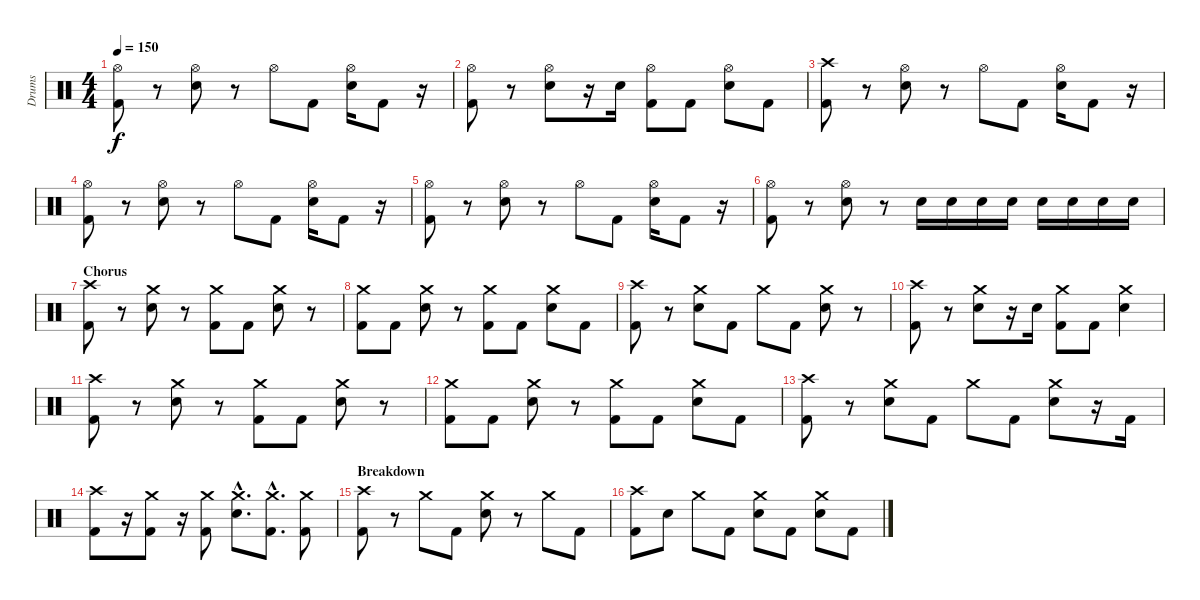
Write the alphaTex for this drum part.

\track ("Drums" "Drums") {instrument percussion}
\staff {score}
\articulation defaults
\ts (4 4)
\tempo 150
\clef neutral
\ks c
("Hi-Hat (open)" "Kick (hit) 2").8{dy f} r.8 ("Hi-Hat (open)" "Electric Snare (hit)").8 r.8 "Hi-Hat (open)".8 "Kick (hit) 2".8 ("Hi-Hat (open)" "Electric Snare (hit)").16 "Kick (hit) 2".8 r.16 |
("Hi-Hat (open)" "Kick (hit) 2").8 r.8 ("Hi-Hat (open)" "Electric Snare (hit)").8 r.16 "Electric Snare (hit)".16 ("Hi-Hat (open)" "Kick (hit) 2").8 "Kick (hit) 2".8 ("Hi-Hat (open)" "Electric Snare (hit)").8 "Kick (hit) 2".8 |
("Crash high (hit)" "Kick (hit) 2").8 r.8 ("Hi-Hat (open)" "Electric Snare (hit)").8 r.8 "Hi-Hat (open)".8 "Kick (hit) 2".8 ("Hi-Hat (open)" "Electric Snare (hit)").16 "Kick (hit) 2".8 r.16 |
("Hi-Hat (open)" "Kick (hit) 2").8 r.8 ("Hi-Hat (open)" "Electric Snare (hit)").8 r.8 "Hi-Hat (open)".8 "Kick (hit) 2".8 ("Hi-Hat (open)" "Electric Snare (hit)").16 "Kick (hit) 2".8 r.16 |
("Hi-Hat (open)" "Kick (hit) 2").8 r.8 ("Hi-Hat (open)" "Electric Snare (hit)").8 r.8 "Hi-Hat (open)".8 "Kick (hit) 2".8 ("Hi-Hat (open)" "Electric Snare (hit)").16 "Kick (hit) 2".8 r.16 |
("Hi-Hat (open)" "Kick (hit) 2").8 r.8 ("Hi-Hat (open)" "Electric Snare (hit)").8 r.8 "Electric Snare (hit)".16 "Electric Snare (hit)".16 "Electric Snare (hit)".16 "Electric Snare (hit)".16 "Electric Snare (hit)".16 "Electric Snare (hit)".16 "Electric Snare (hit)".16 "Electric Snare (hit)".16 |
\section ("" "Chorus")
("Crash high (hit)" "Kick (hit) 2").8 r.8 ("Crash medium (hit)" "Electric Snare (hit)").8 r.8 ("Crash medium (hit)" "Kick (hit) 2").8 "Kick (hit) 2".8 ("Crash medium (hit)" "Electric Snare (hit)").8 r.8 |
("Crash medium (hit)" "Kick (hit) 2").8 "Kick (hit) 2".8 ("Crash medium (hit)" "Electric Snare (hit)").8 r.8 ("Crash medium (hit)" "Kick (hit) 2").8 "Kick (hit) 2".8 ("Crash medium (hit)" "Electric Snare (hit)").8 "Kick (hit) 2".8 |
("Crash high (hit)" "Kick (hit) 2").8 r.8 ("Crash medium (hit)" "Electric Snare (hit)").8 "Kick (hit) 2".8 "Crash medium (hit)".8 "Kick (hit) 2".8 ("Crash medium (hit)" "Electric Snare (hit)").8 r.8 |
("Crash high (hit)" "Kick (hit) 2").8 r.8 ("Crash medium (hit)" "Electric Snare (hit)").8 r.16 "Electric Snare (hit)".16 ("Crash medium (hit)" "Kick (hit) 2").8 "Kick (hit) 2".8 ("Crash medium (hit)" "Electric Snare (hit)").4 |
("Crash high (hit)" "Kick (hit) 2").8 r.8 ("Crash medium (hit)" "Electric Snare (hit)").8 r.8 ("Crash medium (hit)" "Kick (hit) 2").8 "Kick (hit) 2".8 ("Crash medium (hit)" "Electric Snare (hit)").8 r.8 |
("Crash medium (hit)" "Kick (hit) 2").8 "Kick (hit) 2".8 ("Crash medium (hit)" "Electric Snare (hit)").8 r.8 ("Crash medium (hit)" "Kick (hit) 2").8 "Kick (hit) 2".8 ("Crash medium (hit)" "Electric Snare (hit)").8 "Kick (hit) 2".8 |
("Crash high (hit)" "Kick (hit) 2").8 r.8 ("Crash medium (hit)" "Electric Snare (hit)").8 "Kick (hit) 2".8 "Crash medium (hit)".8 "Kick (hit) 2".8 ("Crash medium (hit)" "Electric Snare (hit)").8 r.16 "Kick (hit) 2".16 |
("Crash high (hit)" "Kick (hit) 2").8 r.16 ("Crash medium (hit)" "Kick (hit) 2").8 r.16 ("Crash medium (hit)" "Kick (hit) 2").8 ("Crash medium (hit)"{hac} "Electric Snare (hit)"{hac}).8{d} ("Crash medium (hit)"{hac} "Kick (hit) 2"{hac}).8{d} ("Crash medium (hit)" "Kick (hit) 2").8 |
\section ("" "Breakdown")
("Crash high (hit)" "Kick (hit) 2").8 r.8 "Crash medium (hit)".8 "Kick (hit) 2".8 ("Crash medium (hit)" "Electric Snare (hit)").8 r.8 "Crash medium (hit)".8 "Kick (hit) 2".8 |
("Crash high (hit)" "Kick (hit) 2").8 "Electric Snare (hit)".8 "Crash medium (hit)".8 "Kick (hit) 2".8 ("Crash medium (hit)" "Electric Snare (hit)").8 "Kick (hit) 2".8 ("Crash medium (hit)" "Electric Snare (hit)").8 "Kick (hit) 2".8
